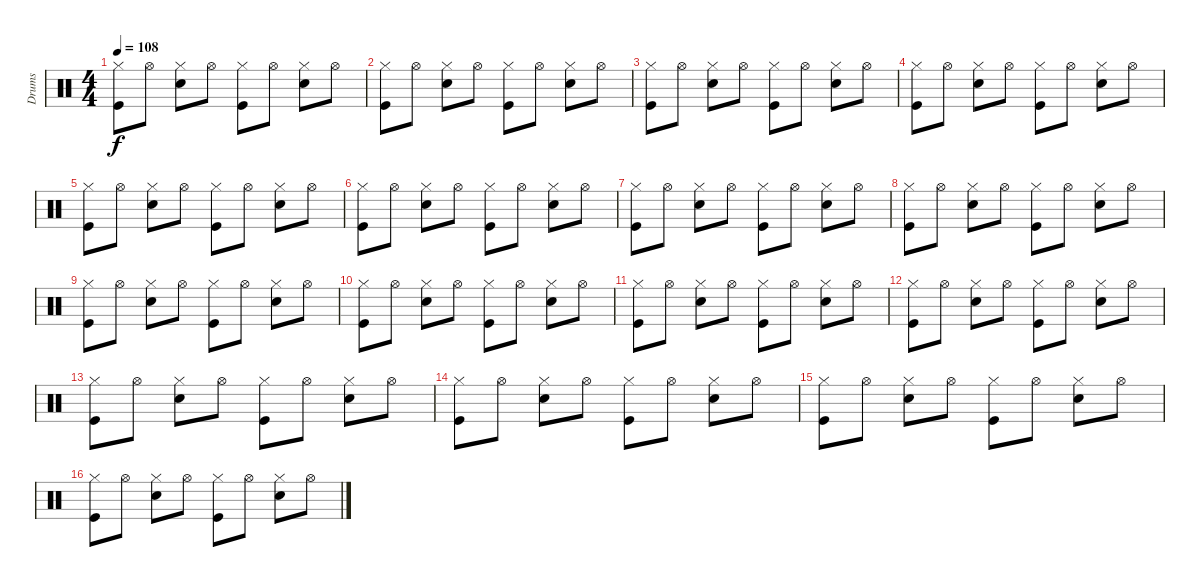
\track ("Drums" "Drums") {instrument percussion}
\staff {score}
\articulation defaults
\ts (4 4)
\tempo 108
\clef neutral
\ks c
("Hi-Hat (closed)" "Kick (hit)").8{dy f} "Hi-Hat (open)".8 ("Hi-Hat (closed)" "Electric Snare (hit)").8 "Hi-Hat (open)".8 ("Hi-Hat (closed)" "Kick (hit)").8 "Hi-Hat (open)".8 ("Hi-Hat (closed)" "Electric Snare (hit)").8 "Hi-Hat (open)".8 |
("Hi-Hat (closed)" "Kick (hit)").8 "Hi-Hat (open)".8 ("Hi-Hat (closed)" "Electric Snare (hit)").8 "Hi-Hat (open)".8 ("Hi-Hat (closed)" "Kick (hit)").8 "Hi-Hat (open)".8 ("Hi-Hat (closed)" "Electric Snare (hit)").8 "Hi-Hat (open)".8 |
("Hi-Hat (closed)" "Kick (hit)").8 "Hi-Hat (open)".8 ("Hi-Hat (closed)" "Electric Snare (hit)").8 "Hi-Hat (open)".8 ("Hi-Hat (closed)" "Kick (hit)").8 "Hi-Hat (open)".8 ("Hi-Hat (closed)" "Electric Snare (hit)").8 "Hi-Hat (open)".8 |
("Hi-Hat (closed)" "Kick (hit)").8 "Hi-Hat (open)".8 ("Hi-Hat (closed)" "Electric Snare (hit)").8 "Hi-Hat (open)".8 ("Hi-Hat (closed)" "Kick (hit)").8 "Hi-Hat (open)".8 ("Hi-Hat (closed)" "Electric Snare (hit)").8 "Hi-Hat (open)".8 |
("Hi-Hat (closed)" "Kick (hit)").8 "Hi-Hat (open)".8 ("Hi-Hat (closed)" "Electric Snare (hit)").8 "Hi-Hat (open)".8 ("Hi-Hat (closed)" "Kick (hit)").8 "Hi-Hat (open)".8 ("Hi-Hat (closed)" "Electric Snare (hit)").8 "Hi-Hat (open)".8 |
("Hi-Hat (closed)" "Kick (hit)").8 "Hi-Hat (open)".8 ("Hi-Hat (closed)" "Electric Snare (hit)").8 "Hi-Hat (open)".8 ("Hi-Hat (closed)" "Kick (hit)").8 "Hi-Hat (open)".8 ("Hi-Hat (closed)" "Electric Snare (hit)").8 "Hi-Hat (open)".8 |
("Hi-Hat (closed)" "Kick (hit)").8 "Hi-Hat (open)".8 ("Hi-Hat (closed)" "Electric Snare (hit)").8 "Hi-Hat (open)".8 ("Hi-Hat (closed)" "Kick (hit)").8 "Hi-Hat (open)".8 ("Hi-Hat (closed)" "Electric Snare (hit)").8 "Hi-Hat (open)".8 |
("Hi-Hat (closed)" "Kick (hit)").8 "Hi-Hat (open)".8 ("Hi-Hat (closed)" "Electric Snare (hit)").8 "Hi-Hat (open)".8 ("Hi-Hat (closed)" "Kick (hit)").8 "Hi-Hat (open)".8 ("Hi-Hat (closed)" "Electric Snare (hit)").8 "Hi-Hat (open)".8 |
("Hi-Hat (closed)" "Kick (hit)").8 "Hi-Hat (open)".8 ("Hi-Hat (closed)" "Electric Snare (hit)").8 "Hi-Hat (open)".8 ("Hi-Hat (closed)" "Kick (hit)").8 "Hi-Hat (open)".8 ("Hi-Hat (closed)" "Electric Snare (hit)").8 "Hi-Hat (open)".8 |
("Hi-Hat (closed)" "Kick (hit)").8 "Hi-Hat (open)".8 ("Hi-Hat (closed)" "Electric Snare (hit)").8 "Hi-Hat (open)".8 ("Hi-Hat (closed)" "Kick (hit)").8 "Hi-Hat (open)".8 ("Hi-Hat (closed)" "Electric Snare (hit)").8 "Hi-Hat (open)".8 |
("Hi-Hat (closed)" "Kick (hit)").8 "Hi-Hat (open)".8 ("Hi-Hat (closed)" "Electric Snare (hit)").8 "Hi-Hat (open)".8 ("Hi-Hat (closed)" "Kick (hit)").8 "Hi-Hat (open)".8 ("Hi-Hat (closed)" "Electric Snare (hit)").8 "Hi-Hat (open)".8 |
("Hi-Hat (closed)" "Kick (hit)").8 "Hi-Hat (open)".8 ("Hi-Hat (closed)" "Electric Snare (hit)").8 "Hi-Hat (open)".8 ("Hi-Hat (closed)" "Kick (hit)").8 "Hi-Hat (open)".8 ("Hi-Hat (closed)" "Electric Snare (hit)").8 "Hi-Hat (open)".8 |
("Hi-Hat (closed)" "Kick (hit)").8 "Hi-Hat (open)".8 ("Hi-Hat (closed)" "Electric Snare (hit)").8 "Hi-Hat (open)".8 ("Hi-Hat (closed)" "Kick (hit)").8 "Hi-Hat (open)".8 ("Hi-Hat (closed)" "Electric Snare (hit)").8 "Hi-Hat (open)".8 |
("Hi-Hat (closed)" "Kick (hit)").8 "Hi-Hat (open)".8 ("Hi-Hat (closed)" "Electric Snare (hit)").8 "Hi-Hat (open)".8 ("Hi-Hat (closed)" "Kick (hit)").8 "Hi-Hat (open)".8 ("Hi-Hat (closed)" "Electric Snare (hit)").8 "Hi-Hat (open)".8 |
("Hi-Hat (closed)" "Kick (hit)").8 "Hi-Hat (open)".8 ("Hi-Hat (closed)" "Electric Snare (hit)").8 "Hi-Hat (open)".8 ("Hi-Hat (closed)" "Kick (hit)").8 "Hi-Hat (open)".8 ("Hi-Hat (closed)" "Electric Snare (hit)").8 "Hi-Hat (open)".8 |
("Hi-Hat (closed)" "Kick (hit)").8 "Hi-Hat (open)".8 ("Hi-Hat (closed)" "Electric Snare (hit)").8 "Hi-Hat (open)".8 ("Hi-Hat (closed)" "Kick (hit)").8 "Hi-Hat (open)".8 ("Hi-Hat (closed)" "Electric Snare (hit)").8 "Hi-Hat (open)".8
